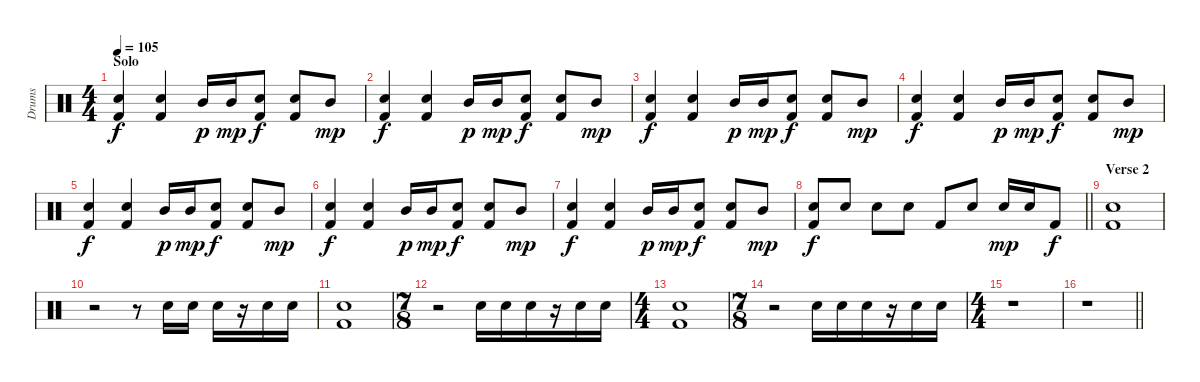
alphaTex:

\track ("Drums" "Drums") {instrument percussion}
\staff {score}
\articulation defaults
\ts (4 4)
\section ("" "Solo")
\tempo 105
\clef neutral
\ks c
("Snare (hit) 2" "Kick (hit) 2").4{dy f} ("Snare (hit) 2" "Kick (hit) 2").4 "Mid Tom (hit)".16{dy p} "Mid Tom (hit)".16{dy mp} ("Snare (hit) 2" "Kick (hit) 2").8{dy f} ("Snare (hit) 2" "Kick (hit) 2").8 "Mid Tom (hit)".8{dy mp} |
("Snare (hit) 2" "Kick (hit) 2").4{dy f} ("Snare (hit) 2" "Kick (hit) 2").4 "Mid Tom (hit)".16{dy p} "Mid Tom (hit)".16{dy mp} ("Snare (hit) 2" "Kick (hit) 2").8{dy f} ("Snare (hit) 2" "Kick (hit) 2").8 "Mid Tom (hit)".8{dy mp} |
("Snare (hit) 2" "Kick (hit) 2").4{dy f} ("Snare (hit) 2" "Kick (hit) 2").4 "Mid Tom (hit)".16{dy p} "Mid Tom (hit)".16{dy mp} ("Snare (hit) 2" "Kick (hit) 2").8{dy f} ("Snare (hit) 2" "Kick (hit) 2").8 "Mid Tom (hit)".8{dy mp} |
("Snare (hit) 2" "Kick (hit) 2").4{dy f} ("Snare (hit) 2" "Kick (hit) 2").4 "Mid Tom (hit)".16{dy p} "Mid Tom (hit)".16{dy mp} ("Snare (hit) 2" "Kick (hit) 2").8{dy f} ("Snare (hit) 2" "Kick (hit) 2").8 "Mid Tom (hit)".8{dy mp} |
("Snare (hit) 2" "Kick (hit) 2").4{dy f} ("Snare (hit) 2" "Kick (hit) 2").4 "Mid Tom (hit)".16{dy p} "Mid Tom (hit)".16{dy mp} ("Snare (hit) 2" "Kick (hit) 2").8{dy f} ("Snare (hit) 2" "Kick (hit) 2").8 "Mid Tom (hit)".8{dy mp} |
("Snare (hit) 2" "Kick (hit) 2").4{dy f} ("Snare (hit) 2" "Kick (hit) 2").4 "Mid Tom (hit)".16{dy p} "Mid Tom (hit)".16{dy mp} ("Snare (hit) 2" "Kick (hit) 2").8{dy f} ("Snare (hit) 2" "Kick (hit) 2").8 "Mid Tom (hit)".8{dy mp} |
("Snare (hit) 2" "Kick (hit) 2").4{dy f} ("Snare (hit) 2" "Kick (hit) 2").4 "Mid Tom (hit)".16{dy p} "Mid Tom (hit)".16{dy mp} ("Snare (hit) 2" "Kick (hit) 2").8{dy f} ("Snare (hit) 2" "Kick (hit) 2").8 "Mid Tom (hit)".8{dy mp} |
\barLineRight lightlight
("Snare (hit) 2" "Kick (hit) 2").8{dy f} "Snare (hit) 2".8 "Snare (hit) 2".8 "Snare (hit) 2".8 "Kick (hit) 2".8 "Snare (hit) 2".8 "Snare (hit) 2".16{dy mp} "Snare (hit) 2".16 "Kick (hit) 2".8{dy f} |
\section ("" "Verse 2")
("Snare (hit) 2" "Kick (hit) 2").1 |
r.2 r.8 "Snare (hit) 2".16 "Snare (hit) 2".16 "Snare (hit) 2".16 r.16 "Snare (hit) 2".16 "Snare (hit) 2".16 |
("Snare (hit) 2" "Kick (hit) 2").1 |
\ts (7 8)
r.2 "Snare (hit) 2".16 "Snare (hit) 2".16 "Snare (hit) 2".16 r.16 "Snare (hit) 2".16 "Snare (hit) 2".16 |
\ts (4 4)
("Snare (hit) 2" "Kick (hit) 2").1 |
\ts (7 8)
r.2 "Snare (hit) 2".16 "Snare (hit) 2".16 "Snare (hit) 2".16 r.16 "Snare (hit) 2".16 "Snare (hit) 2".16 |
\ts (4 4)
r.1 |
\barLineRight lightlight
r.1
